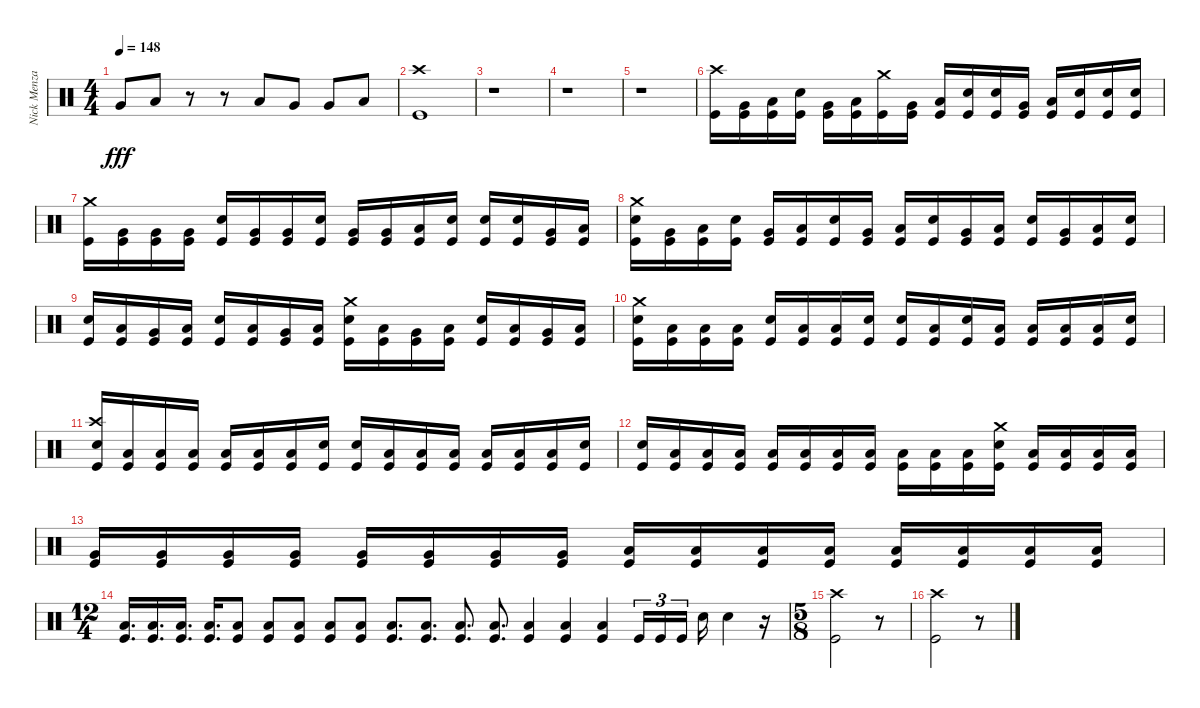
\track ("Nick Menza" "Nick Menza") {instrument percussion}
\staff {score}
\articulation defaults
\ts (4 4)
\tempo 148
\clef neutral
\ks c "Very Low Tom (hit)".8{dy fff} "Low Floor Tom (hit)".8
r.8 r.8 "Low Tom (hit)".8 "Very Low Tom (hit)".8 "Very Low Tom (hit)".8 "Low Floor Tom (hit)".8 |
("Kick (hit)" "Crash high (hit)").1 |
r.1 |
r.1 |
r.1 |
("Kick (hit)" "Crash high (hit)").16 ("Kick (hit)" "Very Low Tom (hit)").16 ("Kick (hit)" "Low Floor Tom (hit)").16 ("Kick (hit)" "Snare (hit) 2").16 ("Kick (hit)" "Very Low Tom (hit)").16 ("Kick (hit)" "Low Floor Tom (hit)").16 ("Kick (hit)" "Crash medium (hit)").16 ("Kick (hit)" "Very Low Tom (hit)").16 ("Kick (hit)" "Low Floor Tom (hit)").16 ("Kick (hit)" "Snare (hit) 2").16 ("Kick (hit)" "Snare (hit) 2").16 ("Kick (hit)" "Very Low Tom (hit)").16 ("Kick (hit)" "Low Floor Tom (hit)").16 ("Kick (hit)" "Snare (hit) 2").16 ("Kick (hit)" "Snare (hit) 2").16 ("Kick (hit)" "Snare (hit) 2").16 |
("Kick (hit)" "Crash medium (hit)").16 ("Kick (hit)" "Very Low Tom (hit)").16 ("Kick (hit)" "Very Low Tom (hit)").16 ("Kick (hit)" "Very Low Tom (hit)").16 ("Kick (hit)" "Snare (hit) 2").16 ("Kick (hit)" "Very Low Tom (hit)").16 ("Kick (hit)" "Very Low Tom (hit)").16 ("Kick (hit)" "Snare (hit) 2").16 ("Kick (hit)" "Very Low Tom (hit)").16 ("Kick (hit)" "Very Low Tom (hit)").16 ("Kick (hit)" "Low Floor Tom (hit)").16 ("Kick (hit)" "Snare (hit) 2").16 ("Kick (hit)" "Snare (hit) 2").16 ("Kick (hit)" "Snare (hit) 2").16 ("Kick (hit)" "Very Low Tom (hit)").16 ("Kick (hit)" "Low Floor Tom (hit)").16 |
("Kick (hit)" "Snare (hit) 2" "Crash medium (hit)").16 ("Kick (hit)" "Very Low Tom (hit)").16 ("Kick (hit)" "Low Floor Tom (hit)").16 ("Kick (hit)" "Snare (hit) 2").16 ("Kick (hit)" "Very Low Tom (hit)").16 ("Kick (hit)" "Low Floor Tom (hit)").16 ("Kick (hit)" "Snare (hit) 2").16 ("Kick (hit)" "Very Low Tom (hit)").16 ("Kick (hit)" "Low Floor Tom (hit)").16 ("Kick (hit)" "Snare (hit) 2").16 ("Kick (hit)" "Very Low Tom (hit)").16 ("Kick (hit)" "Low Floor Tom (hit)").16 ("Kick (hit)" "Snare (hit) 2").16 ("Kick (hit)" "Very Low Tom (hit)").16 ("Kick (hit)" "Low Floor Tom (hit)").16 ("Kick (hit)" "Snare (hit) 2").16 |
("Kick (hit)" "Snare (hit) 2").16 ("Kick (hit)" "Low Tom (hit)").16 ("Kick (hit)" "Very Low Tom (hit)").16 ("Kick (hit)" "Low Floor Tom (hit)").16 ("Kick (hit)" "Snare (hit) 2").16 ("Kick (hit)" "Low Tom (hit)").16 ("Kick (hit)" "Very Low Tom (hit)").16 ("Kick (hit)" "Low Floor Tom (hit)").16 ("Kick (hit)" "Snare (hit) 2" "Crash medium (hit)").16 ("Kick (hit)" "Low Tom (hit)").16 ("Kick (hit)" "Very Low Tom (hit)").16 ("Kick (hit)" "Low Floor Tom (hit)").16 ("Kick (hit)" "Snare (hit) 2").16 ("Kick (hit)" "Low Tom (hit)").16 ("Kick (hit)" "Very Low Tom (hit)").16 ("Kick (hit)" "Low Floor Tom (hit)").16 |
("Kick (hit)" "Snare (hit) 2" "Crash medium (hit)").16 ("Kick (hit)" "Low Floor Tom (hit)").16 ("Kick (hit)" "Low Floor Tom (hit)").16 ("Kick (hit)" "Low Floor Tom (hit)").16 ("Kick (hit)" "Snare (hit) 2").16 ("Kick (hit)" "Low Floor Tom (hit)").16 ("Kick (hit)" "Low Floor Tom (hit)").16 ("Kick (hit)" "Snare (hit) 2").16 ("Kick (hit)" "Snare (hit) 2").16 ("Kick (hit)" "Low Floor Tom (hit)").16 ("Kick (hit)" "Snare (hit) 2").16 ("Kick (hit)" "Low Floor Tom (hit)").16 ("Kick (hit)" "Low Floor Tom (hit)").16 ("Kick (hit)" "Low Floor Tom (hit)").16 ("Kick (hit)" "Low Floor Tom (hit)").16 ("Kick (hit)" "Snare (hit) 2").16 |
("Kick (hit)" "Snare (hit) 2" "Crash high (hit)").16 ("Kick (hit)" "Low Floor Tom (hit)").16 ("Kick (hit)" "Low Floor Tom (hit)").16 ("Kick (hit)" "Low Floor Tom (hit)").16 ("Kick (hit)" "Low Floor Tom (hit)").16 ("Kick (hit)" "Low Floor Tom (hit)").16 ("Kick (hit)" "Low Floor Tom (hit)").16 ("Kick (hit)" "Snare (hit) 2").16 ("Kick (hit)" "Snare (hit) 2").16 ("Kick (hit)" "Low Floor Tom (hit)").16 ("Kick (hit)" "Low Floor Tom (hit)").16 ("Kick (hit)" "Low Floor Tom (hit)").16 ("Kick (hit)" "Low Floor Tom (hit)").16 ("Kick (hit)" "Low Floor Tom (hit)").16 ("Kick (hit)" "Low Floor Tom (hit)").16 ("Kick (hit)" "Snare (hit) 2").16 |
("Kick (hit)" "Snare (hit) 2").16 ("Kick (hit)" "Low Floor Tom (hit)").16 ("Kick (hit)" "Low Floor Tom (hit)").16 ("Kick (hit)" "Low Floor Tom (hit)").16 ("Kick (hit)" "Low Floor Tom (hit)").16 ("Kick (hit)" "Low Floor Tom (hit)").16 ("Kick (hit)" "Low Floor Tom (hit)").16 ("Kick (hit)" "Low Floor Tom (hit)").16 ("Kick (hit)" "Low Floor Tom (hit)").16 ("Kick (hit)" "Low Floor Tom (hit)").16 ("Kick (hit)" "Low Floor Tom (hit)").16 ("Kick (hit)" "Snare (hit) 2" "Crash medium (hit)").16 ("Kick (hit)" "Low Floor Tom (hit)").16 ("Kick (hit)" "Low Floor Tom (hit)").16 ("Kick (hit)" "Low Floor Tom (hit)").16 ("Kick (hit)" "Low Floor Tom (hit)").16 |
("Kick (hit)" "Very Low Tom (hit)").16 ("Kick (hit)" "Very Low Tom (hit)").16 ("Kick (hit)" "Very Low Tom (hit)").16 ("Kick (hit)" "Very Low Tom (hit)").16 ("Kick (hit)" "Very Low Tom (hit)").16 ("Kick (hit)" "Very Low Tom (hit)").16 ("Kick (hit)" "Very Low Tom (hit)").16 ("Kick (hit)" "Very Low Tom (hit)").16 ("Kick (hit)" "Low Floor Tom (hit)").16 ("Kick (hit)" "Low Floor Tom (hit)").16 ("Kick (hit)" "Low Floor Tom (hit)").16 ("Kick (hit)" "Low Floor Tom (hit)").16 ("Kick (hit)" "Low Floor Tom (hit)").16 ("Kick (hit)" "Low Floor Tom (hit)").16 ("Kick (hit)" "Low Floor Tom (hit)").16 ("Kick (hit)" "Low Floor Tom (hit)").16 |
\ts (12 4)
("Kick (hit)" "Low Floor Tom (hit)").16{d} ("Kick (hit)" "Low Floor Tom (hit)").16{d} ("Kick (hit)" "Low Floor Tom (hit)").16{d} ("Kick (hit)" "Low Floor Tom (hit)").16{d} ("Kick (hit)" "Low Floor Tom (hit)").8 ("Kick (hit)" "Low Floor Tom (hit)").8 ("Kick (hit)" "Low Floor Tom (hit)").8 ("Kick (hit)" "Low Floor Tom (hit)").8 ("Kick (hit)" "Low Floor Tom (hit)").8 ("Kick (hit)" "Low Floor Tom (hit)").8{d} ("Kick (hit)" "Low Floor Tom (hit)").8{d} ("Kick (hit)" "Low Floor Tom (hit)").8{d} ("Kick (hit)" "Low Floor Tom (hit)").8{d} ("Kick (hit)" "Low Floor Tom (hit)").4 ("Kick (hit)" "Low Floor Tom (hit)").4 ("Kick (hit)" "Low Floor Tom (hit)").4 "Kick (hit)".16{tu (3 2)} "Kick (hit)".16{tu (3 2)} "Kick (hit)".16{tu (3 2)} "Snare (hit) 2".16 "Snare (hit) 2".4 r.16 |
\ts (5 8)
("Kick (hit)" "Crash high (hit)").2 r.8 |
("Kick (hit)" "Crash high (hit)").2 r.8
